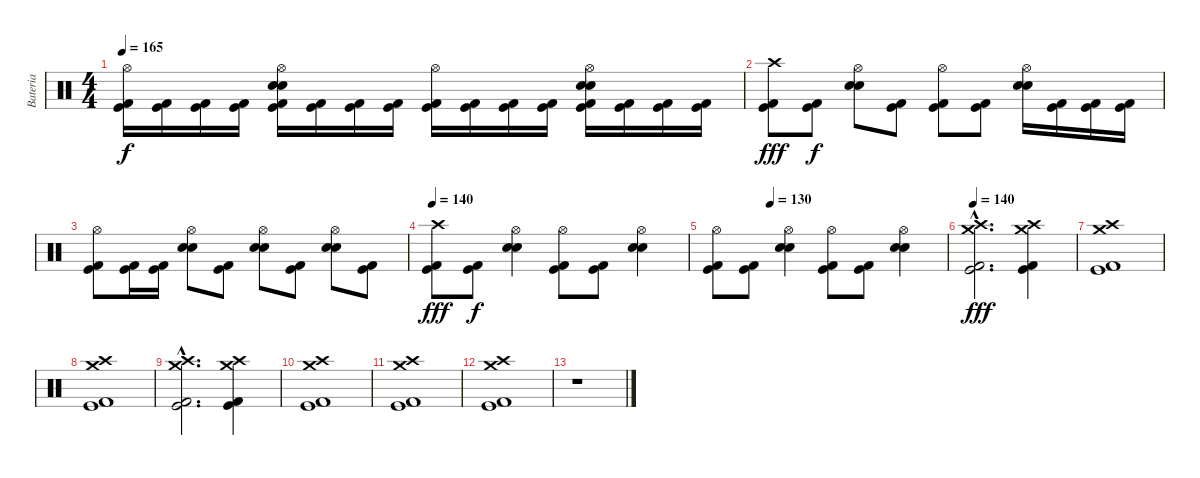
\track ("Bateria" "Bateria") {instrument percussion}
\staff {score}
\articulation defaults
\ts (4 4)
\tempo 165
\clef neutral
\ks c
("Hi-Hat (open)" "Kick (hit) 2" "Kick (hit)").16{dy f} ("Kick (hit) 2" "Kick (hit)").16 ("Kick (hit) 2" "Kick (hit)").16 ("Kick (hit) 2" "Kick (hit)").16 ("Hi-Hat (open)" "Electric Snare (hit)" "Snare (hit) 2" "Kick (hit) 2" "Kick (hit)").16 ("Kick (hit) 2" "Kick (hit)").16 ("Kick (hit) 2" "Kick (hit)").16 ("Kick (hit) 2" "Kick (hit)").16 ("Hi-Hat (open)" "Kick (hit) 2" "Kick (hit)").16 ("Kick (hit) 2" "Kick (hit)").16 ("Kick (hit) 2" "Kick (hit)").16 ("Kick (hit) 2" "Kick (hit)").16 ("Hi-Hat (open)" "Electric Snare (hit)" "Snare (hit) 2" "Kick (hit) 2" "Kick (hit)").16 ("Kick (hit) 2" "Kick (hit)").16 ("Kick (hit) 2" "Kick (hit)").16 ("Kick (hit) 2" "Kick (hit)").16 |
("Crash high (hit)" "Kick (hit) 2" "Kick (hit)").8{dy fff} ("Kick (hit) 2" "Kick (hit)").8{dy f} ("Hi-Hat (open)" "Electric Snare (hit)" "Snare (hit) 2").8 ("Kick (hit) 2" "Kick (hit)").8 ("Hi-Hat (open)" "Kick (hit) 2" "Kick (hit)").8 ("Kick (hit) 2" "Kick (hit)").8 ("Hi-Hat (open)" "Electric Snare (hit)" "Snare (hit) 2").16 ("Kick (hit) 2" "Kick (hit)").16 ("Kick (hit) 2" "Kick (hit)").16 ("Kick (hit) 2" "Kick (hit)").16 |
("Hi-Hat (open)" "Kick (hit) 2" "Kick (hit)").8 ("Kick (hit) 2" "Kick (hit)").16 ("Kick (hit) 2" "Kick (hit)").16 ("Hi-Hat (open)" "Electric Snare (hit)" "Snare (hit) 2").8 ("Kick (hit) 2" "Kick (hit)").8 ("Hi-Hat (open)" "Electric Snare (hit)" "Snare (hit) 2").8 ("Kick (hit) 2" "Kick (hit)").8 ("Hi-Hat (open)" "Electric Snare (hit)" "Snare (hit) 2").8 ("Kick (hit) 2" "Kick (hit)").8 |
\tempo 140
("Crash high (hit)" "Kick (hit) 2" "Kick (hit)").8{dy fff} ("Kick (hit) 2" "Kick (hit)").8{dy f} ("Hi-Hat (open)" "Snare (hit) 2" "Electric Snare (hit)").4 ("Hi-Hat (open)" "Kick (hit) 2" "Kick (hit)").8 ("Kick (hit) 2" "Kick (hit)").8 ("Hi-Hat (open)" "Snare (hit) 2" "Electric Snare (hit)").4 |
\tempo (130 0.25)
("Hi-Hat (open)" "Kick (hit) 2" "Kick (hit)").8 ("Kick (hit) 2" "Kick (hit)").8 ("Hi-Hat (open)" "Snare (hit) 2" "Electric Snare (hit)").4 ("Hi-Hat (open)" "Kick (hit) 2" "Kick (hit)").8 ("Kick (hit) 2" "Kick (hit)").8 ("Hi-Hat (open)" "Snare (hit) 2" "Electric Snare (hit)").4 |
\tempo 140
("Crash high (hit)"{hac} "Crash medium (hit)"{hac} "Kick (hit) 2"{hac} "Kick (hit)"{hac}).2{d dy fff} ("Crash high (hit)" "Crash medium (hit)" "Kick (hit) 2" "Kick (hit)").4 |
("Crash high (hit)" "Crash medium (hit)" "Kick (hit) 2" "Kick (hit)").1 |
("Crash high (hit)" "Crash medium (hit)" "Kick (hit) 2" "Kick (hit)").1 |
("Crash high (hit)"{hac} "Crash medium (hit)"{hac} "Kick (hit) 2"{hac} "Kick (hit)"{hac}).2{d} ("Crash high (hit)" "Crash medium (hit)" "Kick (hit) 2" "Kick (hit)").4 |
("Crash high (hit)" "Crash medium (hit)" "Kick (hit) 2" "Kick (hit)").1 |
("Crash high (hit)" "Crash medium (hit)" "Kick (hit) 2" "Kick (hit)").1 |
("Crash high (hit)" "Crash medium (hit)" "Kick (hit) 2" "Kick (hit)").1 |
r.1
